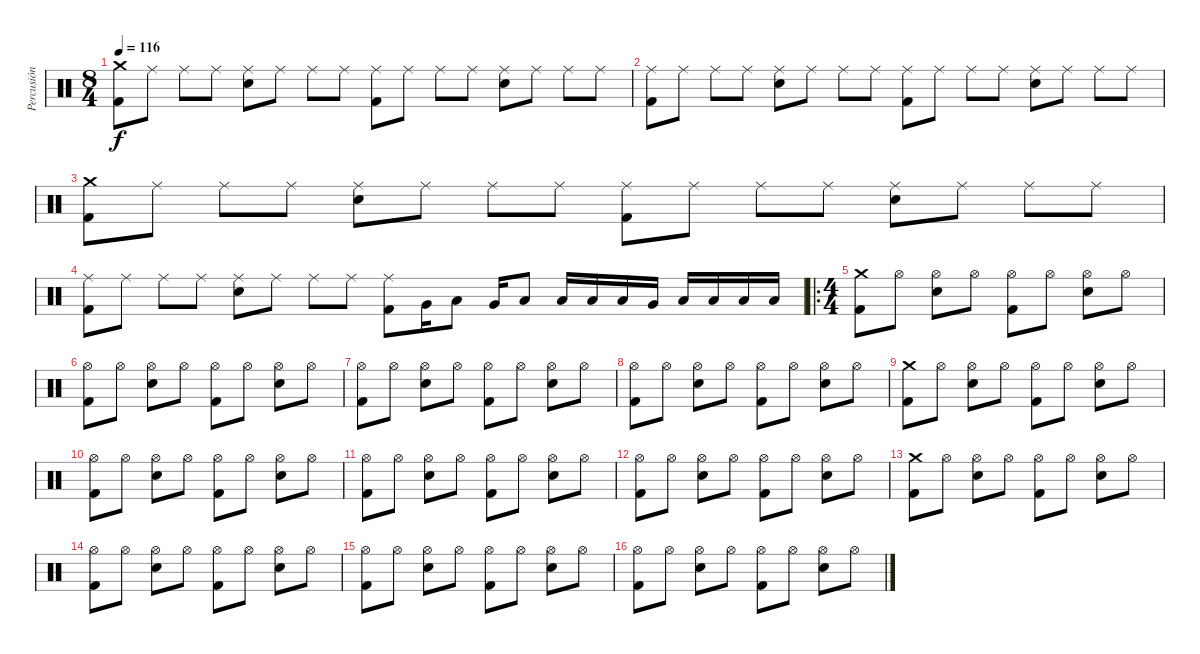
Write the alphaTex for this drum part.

\track ("Percusión" "Percusión") {instrument percussion}
\staff {score}
\articulation defaults
\ts (8 4)
\tempo 116
\clef neutral
\ks c
("Crash medium (hit)" "Kick (hit) 2").8{dy f} "Ride (middle)".8 "Ride (middle)".8 "Ride (middle)".8 ("Ride (middle)" "Electric Snare (hit)").8 "Ride (middle)".8 "Ride (middle)".8 "Ride (middle)".8 ("Ride (middle)" "Kick (hit) 2").8 "Ride (middle)".8 "Ride (middle)".8 "Ride (middle)".8 ("Ride (middle)" "Electric Snare (hit)").8 "Ride (middle)".8 "Ride (middle)".8 "Ride (middle)".8 |
("Ride (middle)" "Kick (hit) 2").8 "Ride (middle)".8 "Ride (middle)".8 "Ride (middle)".8 ("Ride (middle)" "Electric Snare (hit)").8 "Ride (middle)".8 "Ride (middle)".8 "Ride (middle)".8 ("Ride (middle)" "Kick (hit) 2").8 "Ride (middle)".8 "Ride (middle)".8 "Ride (middle)".8 ("Ride (middle)" "Electric Snare (hit)").8 "Ride (middle)".8 "Ride (middle)".8 "Ride (middle)".8 |
("Crash medium (hit)" "Kick (hit) 2").8 "Ride (middle)".8 "Ride (middle)".8 "Ride (middle)".8 ("Ride (middle)" "Electric Snare (hit)").8 "Ride (middle)".8 "Ride (middle)".8 "Ride (middle)".8 ("Ride (middle)" "Kick (hit) 2").8 "Ride (middle)".8 "Ride (middle)".8 "Ride (middle)".8 ("Ride (middle)" "Electric Snare (hit)").8 "Ride (middle)".8 "Ride (middle)".8 "Ride (middle)".8 |
("Ride (middle)" "Kick (hit) 2").8 "Ride (middle)".8 "Ride (middle)".8 "Ride (middle)".8 ("Ride (middle)" "Electric Snare (hit)").8 "Ride (middle)".8 "Ride (middle)".8 "Ride (middle)".8 ("Ride (middle)" "Kick (hit) 2").8 "Very Low Tom (hit)".16 "Low Tom (hit)".8 "Very Low Tom (hit)".16 "Low Tom (hit)".8 "Low Floor Tom (hit)".16 "Low Tom (hit)".16 "Low Tom (hit)".16 "Very Low Tom (hit)".16 "Low Tom (hit)".16 "Low Tom (hit)".16 "Low Tom (hit)".16 "Low Tom (hit)".16 |
\ro
\ts (4 4)
("Crash medium (hit)" "Kick (hit) 2").8 "Hi-Hat (open)".8 ("Hi-Hat (open)" "Electric Snare (hit)").8 "Hi-Hat (open)".8 ("Hi-Hat (open)" "Kick (hit) 2").8 "Hi-Hat (open)".8 ("Hi-Hat (open)" "Electric Snare (hit)").8 "Hi-Hat (open)".8 |
("Hi-Hat (open)" "Kick (hit) 2").8 "Hi-Hat (open)".8 ("Hi-Hat (open)" "Electric Snare (hit)").8 "Hi-Hat (open)".8 ("Hi-Hat (open)" "Kick (hit) 2").8 "Hi-Hat (open)".8 ("Hi-Hat (open)" "Electric Snare (hit)").8 "Hi-Hat (open)".8 |
("Hi-Hat (open)" "Kick (hit) 2").8 "Hi-Hat (open)".8 ("Hi-Hat (open)" "Electric Snare (hit)").8 "Hi-Hat (open)".8 ("Hi-Hat (open)" "Kick (hit) 2").8 "Hi-Hat (open)".8 ("Hi-Hat (open)" "Electric Snare (hit)").8 "Hi-Hat (open)".8 |
("Hi-Hat (open)" "Kick (hit) 2").8 "Hi-Hat (open)".8 ("Hi-Hat (open)" "Electric Snare (hit)").8 "Hi-Hat (open)".8 ("Hi-Hat (open)" "Kick (hit) 2").8 "Hi-Hat (open)".8 ("Hi-Hat (open)" "Electric Snare (hit)").8 "Hi-Hat (open)".8 |
("Crash medium (hit)" "Kick (hit) 2").8 "Hi-Hat (open)".8 ("Hi-Hat (open)" "Electric Snare (hit)").8 "Hi-Hat (open)".8 ("Hi-Hat (open)" "Kick (hit) 2").8 "Hi-Hat (open)".8 ("Hi-Hat (open)" "Electric Snare (hit)").8 "Hi-Hat (open)".8 |
("Hi-Hat (open)" "Kick (hit) 2").8 "Hi-Hat (open)".8 ("Hi-Hat (open)" "Electric Snare (hit)").8 "Hi-Hat (open)".8 ("Hi-Hat (open)" "Kick (hit) 2").8 "Hi-Hat (open)".8 ("Hi-Hat (open)" "Electric Snare (hit)").8 "Hi-Hat (open)".8 |
("Hi-Hat (open)" "Kick (hit) 2").8 "Hi-Hat (open)".8 ("Hi-Hat (open)" "Electric Snare (hit)").8 "Hi-Hat (open)".8 ("Hi-Hat (open)" "Kick (hit) 2").8 "Hi-Hat (open)".8 ("Hi-Hat (open)" "Electric Snare (hit)").8 "Hi-Hat (open)".8 |
("Hi-Hat (open)" "Kick (hit) 2").8 "Hi-Hat (open)".8 ("Hi-Hat (open)" "Electric Snare (hit)").8 "Hi-Hat (open)".8 ("Hi-Hat (open)" "Kick (hit) 2").8 "Hi-Hat (open)".8 ("Hi-Hat (open)" "Electric Snare (hit)").8 "Hi-Hat (open)".8 |
("Crash medium (hit)" "Kick (hit) 2").8 "Hi-Hat (open)".8 ("Hi-Hat (open)" "Electric Snare (hit)").8 "Hi-Hat (open)".8 ("Hi-Hat (open)" "Kick (hit) 2").8 "Hi-Hat (open)".8 ("Hi-Hat (open)" "Electric Snare (hit)").8 "Hi-Hat (open)".8 |
("Hi-Hat (open)" "Kick (hit) 2").8 "Hi-Hat (open)".8 ("Hi-Hat (open)" "Electric Snare (hit)").8 "Hi-Hat (open)".8 ("Hi-Hat (open)" "Kick (hit) 2").8 "Hi-Hat (open)".8 ("Hi-Hat (open)" "Electric Snare (hit)").8 "Hi-Hat (open)".8 |
("Hi-Hat (open)" "Kick (hit) 2").8 "Hi-Hat (open)".8 ("Hi-Hat (open)" "Electric Snare (hit)").8 "Hi-Hat (open)".8 ("Hi-Hat (open)" "Kick (hit) 2").8 "Hi-Hat (open)".8 ("Hi-Hat (open)" "Electric Snare (hit)").8 "Hi-Hat (open)".8 |
("Hi-Hat (open)" "Kick (hit) 2").8 "Hi-Hat (open)".8 ("Hi-Hat (open)" "Electric Snare (hit)").8 "Hi-Hat (open)".8 ("Hi-Hat (open)" "Kick (hit) 2").8 "Hi-Hat (open)".8 ("Hi-Hat (open)" "Electric Snare (hit)").8 "Hi-Hat (open)".8
